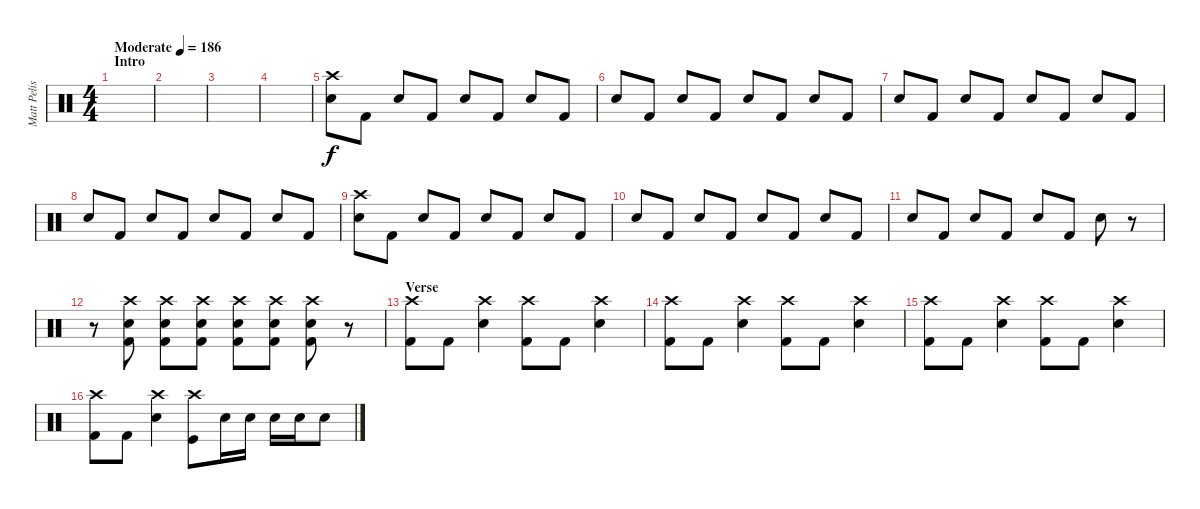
\track ("Matt Pelissier" "Matt Pelis") {instrument percussion}
\staff {score}
\articulation defaults
\ts (4 4)
\section ("" "Intro")
\tempo (186 "Moderate")
\clef neutral
\ks c
|
|
|
|
("Crash high (hit)" "Snare (hit) 2").8 "Kick (hit) 2".8 "Snare (hit) 2".8 "Kick (hit) 2".8 "Snare (hit) 2".8 "Kick (hit) 2".8 "Snare (hit) 2".8 "Kick (hit) 2".8 |
"Snare (hit) 2".8 "Kick (hit) 2".8 "Snare (hit) 2".8 "Kick (hit) 2".8 "Snare (hit) 2".8 "Kick (hit) 2".8 "Snare (hit) 2".8 "Kick (hit) 2".8 |
"Snare (hit) 2".8 "Kick (hit) 2".8 "Snare (hit) 2".8 "Kick (hit) 2".8 "Snare (hit) 2".8 "Kick (hit) 2".8 "Snare (hit) 2".8 "Kick (hit) 2".8 |
"Snare (hit) 2".8 "Kick (hit) 2".8 "Snare (hit) 2".8 "Kick (hit) 2".8 "Snare (hit) 2".8 "Kick (hit) 2".8 "Snare (hit) 2".8 "Kick (hit) 2".8 |
("Crash high (hit)" "Snare (hit) 2").8 "Kick (hit) 2".8 "Snare (hit) 2".8 "Kick (hit) 2".8 "Snare (hit) 2".8 "Kick (hit) 2".8 "Snare (hit) 2".8 "Kick (hit) 2".8 |
"Snare (hit) 2".8 "Kick (hit) 2".8 "Snare (hit) 2".8 "Kick (hit) 2".8 "Snare (hit) 2".8 "Kick (hit) 2".8 "Snare (hit) 2".8 "Kick (hit) 2".8 |
"Snare (hit) 2".8 "Kick (hit) 2".8 "Snare (hit) 2".8 "Kick (hit) 2".8 "Snare (hit) 2".8 "Kick (hit) 2".8 "Snare (hit) 2".8 r.8 |
r.8 ("Kick (hit) 2" "Crash high (hit)" "Snare (hit) 2").8 ("Crash high (hit)" "Snare (hit) 2" "Kick (hit) 2").8 ("Kick (hit) 2" "Crash high (hit)" "Snare (hit) 2").8 ("Crash high (hit)" "Snare (hit) 2" "Kick (hit) 2").8 ("Kick (hit) 2" "Crash high (hit)" "Snare (hit) 2").8 ("Crash high (hit)" "Snare (hit) 2" "Kick (hit) 2").8 r.8 |
\section ("" "Verse")
("Crash high (hit)" "Kick (hit) 2").8 "Kick (hit) 2".8 ("Snare (hit) 2" "Crash high (hit)").4 ("Crash high (hit)" "Kick (hit) 2").8 "Kick (hit) 2".8 ("Snare (hit) 2" "Crash high (hit)").4 |
("Crash high (hit)" "Kick (hit) 2").8 "Kick (hit) 2".8 ("Snare (hit) 2" "Crash high (hit)").4 ("Crash high (hit)" "Kick (hit) 2").8 "Kick (hit) 2".8 ("Snare (hit) 2" "Crash high (hit)").4 |
("Crash high (hit)" "Kick (hit) 2").8 "Kick (hit) 2".8 ("Snare (hit) 2" "Crash high (hit)").4 ("Crash high (hit)" "Kick (hit) 2").8 "Kick (hit) 2".8 ("Snare (hit) 2" "Crash high (hit)").4 |
("Crash high (hit)" "Kick (hit) 2").8 "Kick (hit) 2".8 ("Snare (hit) 2" "Crash high (hit)").4 ("Crash high (hit)" "Kick (hit)").8 "Snare (hit) 2".16 "Snare (hit) 2".16 "Snare (hit) 2".16 "Snare (hit) 2".16 "Snare (hit) 2".8
